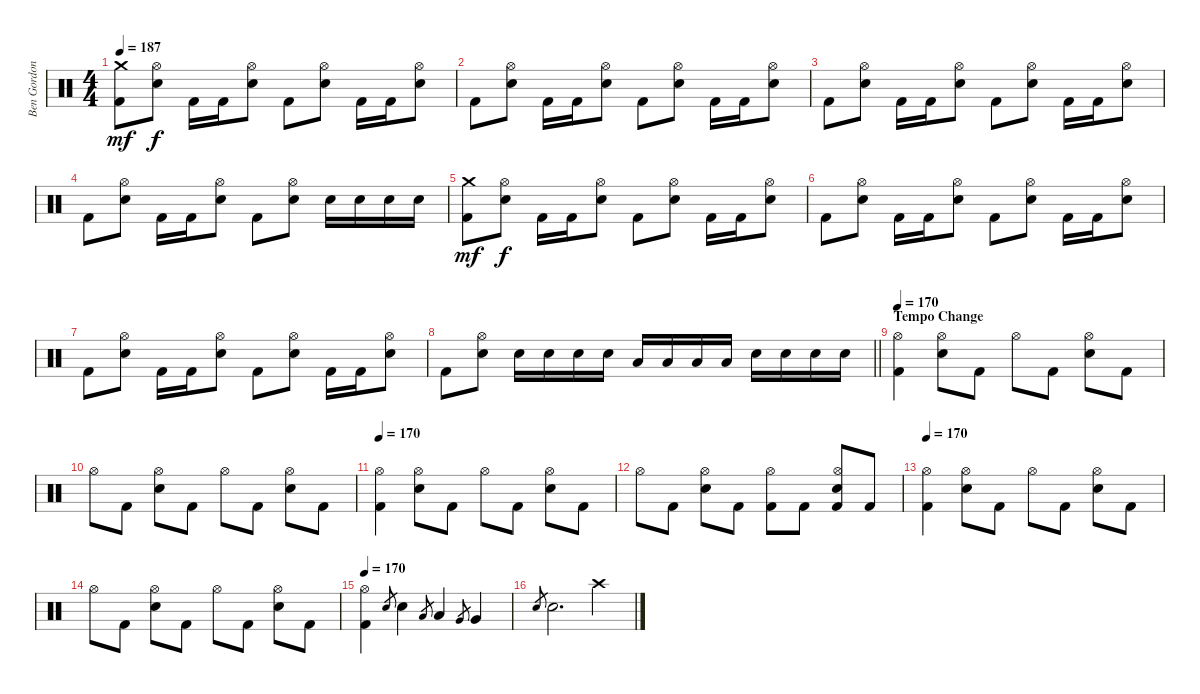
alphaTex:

\track ("Ben Gordon" "Ben Gordon") {instrument percussion}
\staff {score}
\articulation defaults
\ts (4 4)
\tempo 187
\clef neutral
\ks c
("Crash medium (hit)" "Kick (hit) 2").8{dy mf} ("Hi-Hat (open)" "Electric Snare (hit)").8{dy f} "Kick (hit) 2".16 "Kick (hit) 2".16 ("Hi-Hat (open)" "Electric Snare (hit)").8 "Kick (hit) 2".8 ("Hi-Hat (open)" "Electric Snare (hit)").8 "Kick (hit) 2".16 "Kick (hit) 2".16 ("Hi-Hat (open)" "Electric Snare (hit)").8 |
"Kick (hit) 2".8 ("Hi-Hat (open)" "Electric Snare (hit)").8 "Kick (hit) 2".16 "Kick (hit) 2".16 ("Hi-Hat (open)" "Electric Snare (hit)").8 "Kick (hit) 2".8 ("Hi-Hat (open)" "Electric Snare (hit)").8 "Kick (hit) 2".16 "Kick (hit) 2".16 ("Hi-Hat (open)" "Electric Snare (hit)").8 |
"Kick (hit) 2".8 ("Hi-Hat (open)" "Electric Snare (hit)").8 "Kick (hit) 2".16 "Kick (hit) 2".16 ("Hi-Hat (open)" "Electric Snare (hit)").8 "Kick (hit) 2".8 ("Hi-Hat (open)" "Electric Snare (hit)").8 "Kick (hit) 2".16 "Kick (hit) 2".16 ("Hi-Hat (open)" "Electric Snare (hit)").8 |
"Kick (hit) 2".8 ("Hi-Hat (open)" "Electric Snare (hit)").8 "Kick (hit) 2".16 "Kick (hit) 2".16 ("Hi-Hat (open)" "Electric Snare (hit)").8 "Kick (hit) 2".8 ("Hi-Hat (open)" "Electric Snare (hit)").8 "Electric Snare (hit)".16 "Electric Snare (hit)".16 "Electric Snare (hit)".16 "Electric Snare (hit)".16 |
("Crash medium (hit)" "Kick (hit) 2").8{dy mf} ("Hi-Hat (open)" "Electric Snare (hit)").8{dy f} "Kick (hit) 2".16 "Kick (hit) 2".16 ("Hi-Hat (open)" "Electric Snare (hit)").8 "Kick (hit) 2".8 ("Hi-Hat (open)" "Electric Snare (hit)").8 "Kick (hit) 2".16 "Kick (hit) 2".16 ("Hi-Hat (open)" "Electric Snare (hit)").8 |
"Kick (hit) 2".8 ("Hi-Hat (open)" "Electric Snare (hit)").8 "Kick (hit) 2".16 "Kick (hit) 2".16 ("Hi-Hat (open)" "Electric Snare (hit)").8 "Kick (hit) 2".8 ("Hi-Hat (open)" "Electric Snare (hit)").8 "Kick (hit) 2".16 "Kick (hit) 2".16 ("Hi-Hat (open)" "Electric Snare (hit)").8 |
"Kick (hit) 2".8 ("Hi-Hat (open)" "Electric Snare (hit)").8 "Kick (hit) 2".16 "Kick (hit) 2".16 ("Hi-Hat (open)" "Electric Snare (hit)").8 "Kick (hit) 2".8 ("Hi-Hat (open)" "Electric Snare (hit)").8 "Kick (hit) 2".16 "Kick (hit) 2".16 ("Hi-Hat (open)" "Electric Snare (hit)").8 |
\barLineRight lightlight "Kick (hit) 2".8
("Hi-Hat (open)" "Electric Snare (hit)").8 "Electric Snare (hit)".16 "Electric Snare (hit)".16 "Electric Snare (hit)".16 "Electric Snare (hit)".16 "Low Tom (hit)".16 "Low Tom (hit)".16 "Low Tom (hit)".16 "Low Tom (hit)".16 "Electric Snare (hit)".16 "Electric Snare (hit)".16 "Electric Snare (hit)".16 "Electric Snare (hit)".16 |
\section ("" "Tempo Change")
\tempo 170
("Hi-Hat (open)" "Kick (hit) 2").4 ("Hi-Hat (open)" "Electric Snare (hit)").8 "Kick (hit) 2".8 "Hi-Hat (open)".8 "Kick (hit) 2".8 ("Hi-Hat (open)" "Electric Snare (hit)").8 "Kick (hit) 2".8 |
"Hi-Hat (open)".8 "Kick (hit) 2".8 ("Hi-Hat (open)" "Electric Snare (hit)").8 "Kick (hit) 2".8 "Hi-Hat (open)".8 "Kick (hit) 2".8 ("Hi-Hat (open)" "Electric Snare (hit)").8 "Kick (hit) 2".8 |
\tempo 170
("Hi-Hat (open)" "Kick (hit) 2").4 ("Hi-Hat (open)" "Electric Snare (hit)").8 "Kick (hit) 2".8 "Hi-Hat (open)".8 "Kick (hit) 2".8 ("Hi-Hat (open)" "Electric Snare (hit)").8 "Kick (hit) 2".8 |
"Hi-Hat (open)".8 "Kick (hit) 2".8 ("Hi-Hat (open)" "Electric Snare (hit)").8 "Kick (hit) 2".8 ("Hi-Hat (open)" "Kick (hit) 2").8 "Kick (hit) 2".8 ("Hi-Hat (open)" "Electric Snare (hit)" "Kick (hit) 2").8 "Kick (hit) 2".8 |
\tempo 170
("Hi-Hat (open)" "Kick (hit) 2").4 ("Hi-Hat (open)" "Electric Snare (hit)").8 "Kick (hit) 2".8 "Hi-Hat (open)".8 "Kick (hit) 2".8 ("Hi-Hat (open)" "Electric Snare (hit)").8 "Kick (hit) 2".8 |
"Hi-Hat (open)".8 "Kick (hit) 2".8 ("Hi-Hat (open)" "Electric Snare (hit)").8 "Kick (hit) 2".8 "Hi-Hat (open)".8 "Kick (hit) 2".8 ("Hi-Hat (open)" "Electric Snare (hit)").8 "Kick (hit) 2".8 |
\tempo 170
("Hi-Hat (open)" "Kick (hit) 2").4 "Electric Snare (hit)".8{gr} "Electric Snare (hit)".4 "Low Tom (hit)".8{gr} "Low Tom (hit)".4 "Very Low Tom (hit)".8{gr} "Very Low Tom (hit)".4 |
"Electric Snare (hit)".8{gr} "Electric Snare (hit)".2{d} "Crash high (hit)".4
